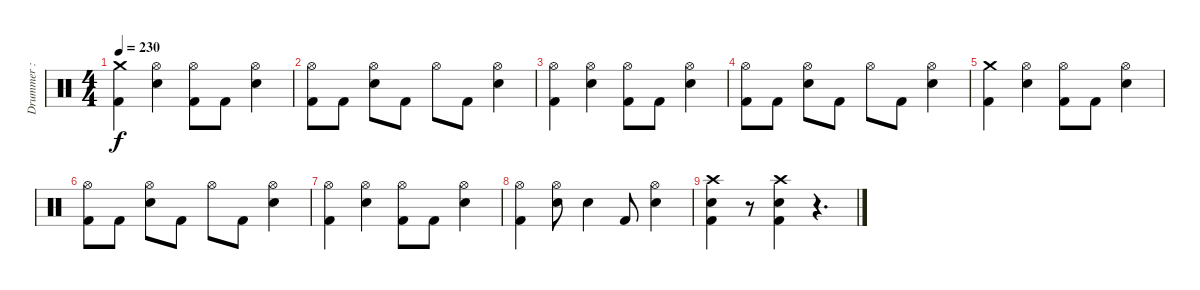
\track ("Drummer : Tainaka Ritsu - Swan" "Drummer : ") {instrument percussion}
\staff {score}
\articulation defaults
\ts (4 4)
\tempo 230
\clef neutral
\ks c
("Crash medium (hit)" "Kick (hit) 2").4{dy f} ("Hi-Hat (open)" "Electric Snare (hit)").4 ("Hi-Hat (open)" "Kick (hit) 2").8 "Kick (hit) 2".8 ("Hi-Hat (open)" "Electric Snare (hit)").4 |
("Hi-Hat (open)" "Kick (hit) 2").8 "Kick (hit) 2".8 ("Hi-Hat (open)" "Electric Snare (hit)").8 "Kick (hit) 2".8 "Hi-Hat (open)".8 "Kick (hit) 2".8 ("Hi-Hat (open)" "Electric Snare (hit)").4 |
("Hi-Hat (open)" "Kick (hit) 2").4 ("Hi-Hat (open)" "Electric Snare (hit)").4 ("Hi-Hat (open)" "Kick (hit) 2").8 "Kick (hit) 2".8 ("Hi-Hat (open)" "Electric Snare (hit)").4 |
("Hi-Hat (open)" "Kick (hit) 2").8 "Kick (hit) 2".8 ("Hi-Hat (open)" "Electric Snare (hit)").8 "Kick (hit) 2".8 "Hi-Hat (open)".8 "Kick (hit) 2".8 ("Hi-Hat (open)" "Electric Snare (hit)").4 |
("Crash medium (hit)" "Kick (hit) 2").4 ("Hi-Hat (open)" "Electric Snare (hit)").4 ("Hi-Hat (open)" "Kick (hit) 2").8 "Kick (hit) 2".8 ("Hi-Hat (open)" "Electric Snare (hit)").4 |
("Hi-Hat (open)" "Kick (hit) 2").8 "Kick (hit) 2".8 ("Hi-Hat (open)" "Electric Snare (hit)").8 "Kick (hit) 2".8 "Hi-Hat (open)".8 "Kick (hit) 2".8 ("Hi-Hat (open)" "Electric Snare (hit)").4 |
("Hi-Hat (open)" "Kick (hit) 2").4 ("Hi-Hat (open)" "Electric Snare (hit)").4 ("Hi-Hat (open)" "Kick (hit) 2").8 "Kick (hit) 2".8 ("Hi-Hat (open)" "Electric Snare (hit)").4 |
("Hi-Hat (open)" "Kick (hit) 2").4 ("Hi-Hat (open)" "Electric Snare (hit)").8 "Electric Snare (hit)".4 "Kick (hit) 2".8 ("Hi-Hat (open)" "Electric Snare (hit)").4 |
("Crash high (hit)" "Electric Snare (hit)" "Kick (hit) 2").4 r.8 ("Crash high (hit)" "Electric Snare (hit)" "Kick (hit) 2").4 r.4{d}
